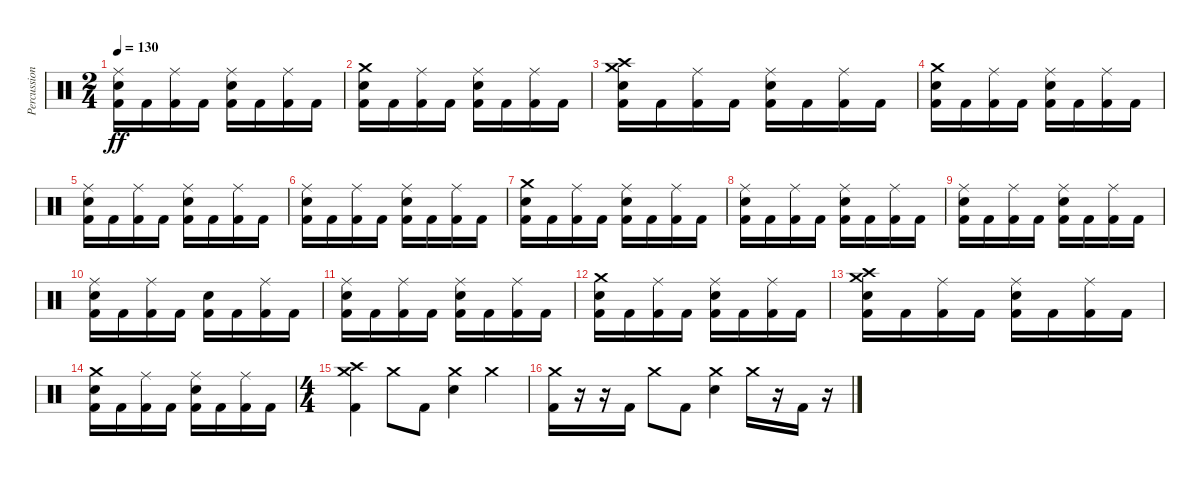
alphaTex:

\track ("Percussion" "Percussion") {instrument percussion}
\staff {score}
\articulation defaults
\ts (2 4)
\tempo 130
\clef neutral
\ks c
("Ride (middle)" "Snare (hit) 2" "Kick (hit) 2").16{dy ff} "Kick (hit) 2".16 ("Ride (middle)" "Kick (hit) 2").16 "Kick (hit) 2".16 ("Ride (middle)" "Snare (hit) 2" "Kick (hit) 2").16 "Kick (hit) 2".16 ("Ride (middle)" "Kick (hit) 2").16 "Kick (hit) 2".16 |
("Crash medium (hit)" "Snare (hit) 2" "Kick (hit) 2").16 "Kick (hit) 2".16 ("Ride (middle)" "Kick (hit) 2").16 "Kick (hit) 2".16 ("Ride (middle)" "Snare (hit) 2" "Kick (hit) 2").16 "Kick (hit) 2".16 ("Ride (middle)" "Kick (hit) 2").16 "Kick (hit) 2".16 |
("Crash high (hit)" "Crash medium (hit)" "Snare (hit) 2" "Kick (hit) 2").16 "Kick (hit) 2".16 ("Ride (middle)" "Kick (hit) 2").16 "Kick (hit) 2".16 ("Ride (middle)" "Snare (hit) 2" "Kick (hit) 2").16 "Kick (hit) 2".16 ("Ride (middle)" "Kick (hit) 2").16 "Kick (hit) 2".16 |
("Crash medium (hit)" "Snare (hit) 2" "Kick (hit) 2").16 "Kick (hit) 2".16 ("Ride (middle)" "Kick (hit) 2").16 "Kick (hit) 2".16 ("Ride (middle)" "Snare (hit) 2" "Kick (hit) 2").16 "Kick (hit) 2".16 ("Ride (middle)" "Kick (hit) 2").16 "Kick (hit) 2".16 |
("Ride (middle)" "Snare (hit) 2" "Kick (hit) 2").16 "Kick (hit) 2".16 ("Ride (middle)" "Kick (hit) 2").16 "Kick (hit) 2".16 ("Ride (middle)" "Snare (hit) 2" "Kick (hit) 2").16 "Kick (hit) 2".16 ("Ride (middle)" "Kick (hit) 2").16 "Kick (hit) 2".16 |
("Ride (middle)" "Snare (hit) 2" "Kick (hit) 2").16 "Kick (hit) 2".16 ("Ride (middle)" "Kick (hit) 2").16 "Kick (hit) 2".16 ("Ride (middle)" "Snare (hit) 2" "Kick (hit) 2").16 "Kick (hit) 2".16 ("Ride (middle)" "Kick (hit) 2").16 "Kick (hit) 2".16 |
("Crash medium (hit)" "Snare (hit) 2" "Kick (hit) 2").16 "Kick (hit) 2".16 ("Ride (middle)" "Kick (hit) 2").16 "Kick (hit) 2".16 ("Ride (middle)" "Snare (hit) 2" "Kick (hit) 2").16 "Kick (hit) 2".16 ("Ride (middle)" "Kick (hit) 2").16 "Kick (hit) 2".16 |
("Ride (middle)" "Snare (hit) 2" "Kick (hit) 2").16 "Kick (hit) 2".16 ("Ride (middle)" "Kick (hit) 2").16 "Kick (hit) 2".16 ("Ride (middle)" "Snare (hit) 2" "Kick (hit) 2").16 "Kick (hit) 2".16 ("Ride (middle)" "Kick (hit) 2").16 "Kick (hit) 2".16 |
("Ride (middle)" "Snare (hit) 2" "Kick (hit) 2").16 "Kick (hit) 2".16 ("Ride (middle)" "Kick (hit) 2").16 "Kick (hit) 2".16 ("Ride (middle)" "Snare (hit) 2" "Kick (hit) 2").16 "Kick (hit) 2".16 ("Ride (middle)" "Kick (hit) 2").16 "Kick (hit) 2".16 |
("Ride (middle)" "Snare (hit) 2" "Kick (hit) 2").16 "Kick (hit) 2".16 ("Ride (middle)" "Kick (hit) 2").16 "Kick (hit) 2".16 ("Snare (hit) 2" "Kick (hit) 2").16 "Kick (hit) 2".16 ("Ride (middle)" "Kick (hit) 2").16 "Kick (hit) 2".16 |
("Ride (middle)" "Snare (hit) 2" "Kick (hit) 2").16 "Kick (hit) 2".16 ("Ride (middle)" "Kick (hit) 2").16 "Kick (hit) 2".16 ("Ride (middle)" "Snare (hit) 2" "Kick (hit) 2").16 "Kick (hit) 2".16 ("Ride (middle)" "Kick (hit) 2").16 "Kick (hit) 2".16 |
("Crash medium (hit)" "Snare (hit) 2" "Kick (hit) 2").16 "Kick (hit) 2".16 ("Ride (middle)" "Kick (hit) 2").16 "Kick (hit) 2".16 ("Ride (middle)" "Snare (hit) 2" "Kick (hit) 2").16 "Kick (hit) 2".16 ("Ride (middle)" "Kick (hit) 2").16 "Kick (hit) 2".16 |
("Crash high (hit)" "Crash medium (hit)" "Snare (hit) 2" "Kick (hit) 2").16 "Kick (hit) 2".16 ("Ride (middle)" "Kick (hit) 2").16 "Kick (hit) 2".16 ("Ride (middle)" "Snare (hit) 2" "Kick (hit) 2").16 "Kick (hit) 2".16 ("Ride (middle)" "Kick (hit) 2").16 "Kick (hit) 2".16 |
("Crash medium (hit)" "Snare (hit) 2" "Kick (hit) 2").16 "Kick (hit) 2".16 ("Ride (middle)" "Kick (hit) 2").16 "Kick (hit) 2".16 ("Ride (middle)" "Snare (hit) 2" "Kick (hit) 2").16 "Kick (hit) 2".16 ("Ride (middle)" "Kick (hit) 2").16 "Kick (hit) 2".16 |
\ts (4 4)
("Crash medium (hit)" "Crash high (hit)" "Kick (hit) 2").4 "Crash medium (hit)".8 "Kick (hit) 2".8 ("Crash medium (hit)" "Snare (hit) 2").4 "Crash medium (hit)".4 |
("Crash medium (hit)" "Kick (hit) 2").16 r.16 r.16 "Kick (hit) 2".16 "Crash medium (hit)".8 "Kick (hit) 2".8 ("Crash medium (hit)" "Snare (hit) 2").4 "Crash medium (hit)".16 r.16 "Kick (hit) 2".16 r.16
